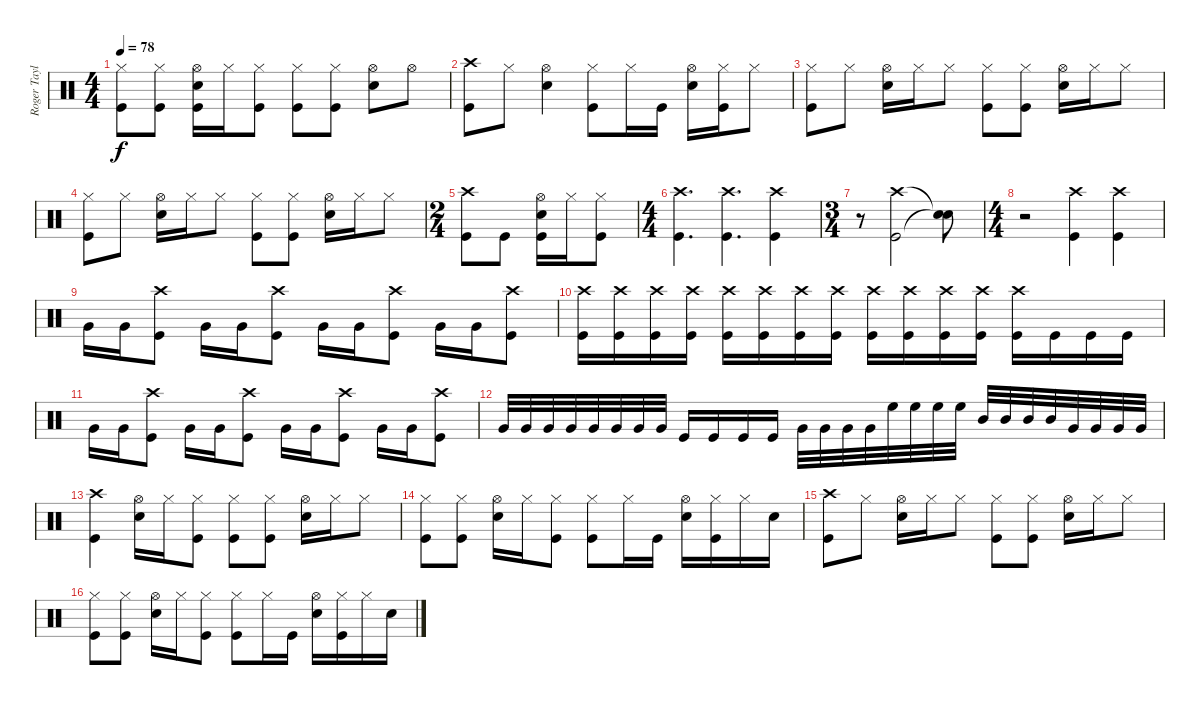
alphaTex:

\track ("Roger Taylor - Drums" "Roger Tayl") {instrument percussion}
\staff {score}
\articulation defaults
\ts (4 4)
\tempo 78
\clef neutral
\ks c
("Hi-Hat (closed)" "Kick (hit)").8{dy f} ("Hi-Hat (closed)" "Kick (hit)").8 ("Hi-Hat (open)" "Kick (hit)" "Electric Snare (hit)").16 "Hi-Hat (closed)".16 ("Hi-Hat (closed)" "Kick (hit)").8 ("Hi-Hat (closed)" "Kick (hit)").8 ("Hi-Hat (closed)" "Kick (hit)").8 ("Hi-Hat (open)" "Electric Snare (hit)").8 "Hi-Hat (open)".8 |
("Kick (hit)" "Crash high (hit)").8 "Hi-Hat (closed)".8 ("Electric Snare (hit)" "Hi-Hat (open)").4 ("Hi-Hat (closed)" "Kick (hit)").8 "Hi-Hat (closed)".16 "Kick (hit)".16 ("Hi-Hat (open)" "Electric Snare (hit)").16 ("Hi-Hat (closed)" "Kick (hit)").16 "Hi-Hat (closed)".8 |
("Hi-Hat (closed)" "Kick (hit)").8 "Hi-Hat (closed)".8 ("Hi-Hat (open)" "Electric Snare (hit)").16 "Hi-Hat (closed)".16 "Hi-Hat (closed)".8 ("Hi-Hat (closed)" "Kick (hit)").8 ("Hi-Hat (closed)" "Kick (hit)").8 ("Hi-Hat (open)" "Electric Snare (hit)").16 "Hi-Hat (closed)".16 "Hi-Hat (closed)".8 |
("Hi-Hat (closed)" "Kick (hit)").8 "Hi-Hat (closed)".8 ("Hi-Hat (open)" "Electric Snare (hit)").16 "Hi-Hat (closed)".16 "Hi-Hat (closed)".8 ("Hi-Hat (closed)" "Kick (hit)").8 ("Hi-Hat (closed)" "Kick (hit)").8 ("Hi-Hat (open)" "Electric Snare (hit)").16 "Hi-Hat (closed)".16 "Hi-Hat (closed)".8 |
\ts (2 4)
("Crash high (hit)" "Kick (hit)").8 "Kick (hit)".8 ("Kick (hit)" "Hi-Hat (open)" "Electric Snare (hit)").16 "Hi-Hat (closed)".16 ("Hi-Hat (closed)" "Kick (hit)").8 |
\ts (4 4)
("Crash high (hit)" "Kick (hit)").4{d} ("Crash high (hit)" "Kick (hit)").4{d} ("Crash high (hit)" "Kick (hit)").4 |
\ts (3 4)
r.8 ("Crash high (hit)" "Kick (hit)").2 ("Snare (hit)"{t} "Snare (hit)"{t}).8 |
\ts (4 4)
r.2 ("Crash high (hit)" "Kick (hit)").4 ("Crash high (hit)" "Kick (hit)").4 |
"Very Low Tom (hit)".16 "Very Low Tom (hit)".16 ("Crash high (hit)" "Kick (hit)").8 "Very Low Tom (hit)".16 "Very Low Tom (hit)".16 ("Crash high (hit)" "Kick (hit)").8 "Very Low Tom (hit)".16 "Very Low Tom (hit)".16 ("Crash high (hit)" "Kick (hit)").8 "Very Low Tom (hit)".16 "Very Low Tom (hit)".16 ("Crash high (hit)" "Kick (hit)").8 |
("Crash high (hit)" "Kick (hit)").16 ("Crash high (hit)" "Kick (hit)").16 ("Crash high (hit)" "Kick (hit)").16 ("Crash high (hit)" "Kick (hit)").16 ("Crash high (hit)" "Kick (hit)").16 ("Crash high (hit)" "Kick (hit)").16 ("Crash high (hit)" "Kick (hit)").16 ("Crash high (hit)" "Kick (hit)").16 ("Crash high (hit)" "Kick (hit)").16 ("Crash high (hit)" "Kick (hit)").16 ("Crash high (hit)" "Kick (hit)").16 ("Crash high (hit)" "Kick (hit)").16 ("Crash high (hit)" "Kick (hit)").16 "Kick (hit)".16 "Kick (hit)".16 "Kick (hit)".16 |
"Very Low Tom (hit)".16 "Very Low Tom (hit)".16 ("Crash high (hit)" "Kick (hit)").8 "Very Low Tom (hit)".16 "Very Low Tom (hit)".16 ("Crash high (hit)" "Kick (hit)").8 "Very Low Tom (hit)".16 "Very Low Tom (hit)".16 ("Crash high (hit)" "Kick (hit)").8 "Very Low Tom (hit)".16 "Very Low Tom (hit)".16 ("Crash high (hit)" "Kick (hit)").8 |
"Very Low Tom (hit)".32 "Very Low Tom (hit)".32 "Very Low Tom (hit)".32 "Very Low Tom (hit)".32 "Very Low Tom (hit)".32 "Very Low Tom (hit)".32 "Very Low Tom (hit)".32 "Very Low Tom (hit)".32 "Kick (hit)".16 "Kick (hit)".16 "Kick (hit)".16 "Kick (hit)".16 "Very Low Tom (hit)".32 "Very Low Tom (hit)".32 "Very Low Tom (hit)".32 "Very Low Tom (hit)".32 "High Floor Tom (hit)".32 "High Floor Tom (hit)".32 "High Floor Tom (hit)".32 "High Floor Tom (hit)".32 "Mid Tom (hit)".32 "Mid Tom (hit)".32 "Mid Tom (hit)".32 "Mid Tom (hit)".32 "Very Low Tom (hit)".32 "Very Low Tom (hit)".32 "Very Low Tom (hit)".32 "Very Low Tom (hit)".32 |
("Kick (hit)" "Crash high (hit)").4 ("Hi-Hat (open)" "Electric Snare (hit)").16 "Hi-Hat (closed)".16 ("Hi-Hat (closed)" "Kick (hit)").8 ("Hi-Hat (closed)" "Kick (hit)").8 ("Hi-Hat (closed)" "Kick (hit)").8 ("Hi-Hat (open)" "Electric Snare (hit)").16 "Hi-Hat (closed)".16 "Hi-Hat (closed)".8 |
("Hi-Hat (closed)" "Kick (hit)").8 ("Hi-Hat (closed)" "Kick (hit)").8 ("Hi-Hat (open)" "Electric Snare (hit)").16 "Hi-Hat (closed)".16 ("Hi-Hat (closed)" "Kick (hit)").8 ("Hi-Hat (closed)" "Kick (hit)").8 "Hi-Hat (closed)".16 "Kick (hit)".16 ("Electric Snare (hit)" "Hi-Hat (open)").16 ("Hi-Hat (closed)" "Kick (hit)").16 "Hi-Hat (closed)".16 "Electric Snare (hit)".16 |
("Kick (hit)" "Crash high (hit)").8 "Hi-Hat (closed)".8 ("Electric Snare (hit)" "Hi-Hat (open)").16 "Hi-Hat (closed)".16 "Hi-Hat (closed)".8 ("Hi-Hat (closed)" "Kick (hit)").8 ("Hi-Hat (closed)" "Kick (hit)").8 ("Electric Snare (hit)" "Hi-Hat (open)").16 "Hi-Hat (closed)".16 "Hi-Hat (closed)".8 |
("Hi-Hat (closed)" "Kick (hit)").8 ("Hi-Hat (closed)" "Kick (hit)").8 ("Hi-Hat (open)" "Electric Snare (hit)").16 "Hi-Hat (closed)".16 ("Hi-Hat (closed)" "Kick (hit)").8 ("Hi-Hat (closed)" "Kick (hit)").8 "Hi-Hat (closed)".16 "Kick (hit)".16 ("Electric Snare (hit)" "Hi-Hat (open)").16 ("Hi-Hat (closed)" "Kick (hit)").16 "Hi-Hat (closed)".16 "Electric Snare (hit)".16
